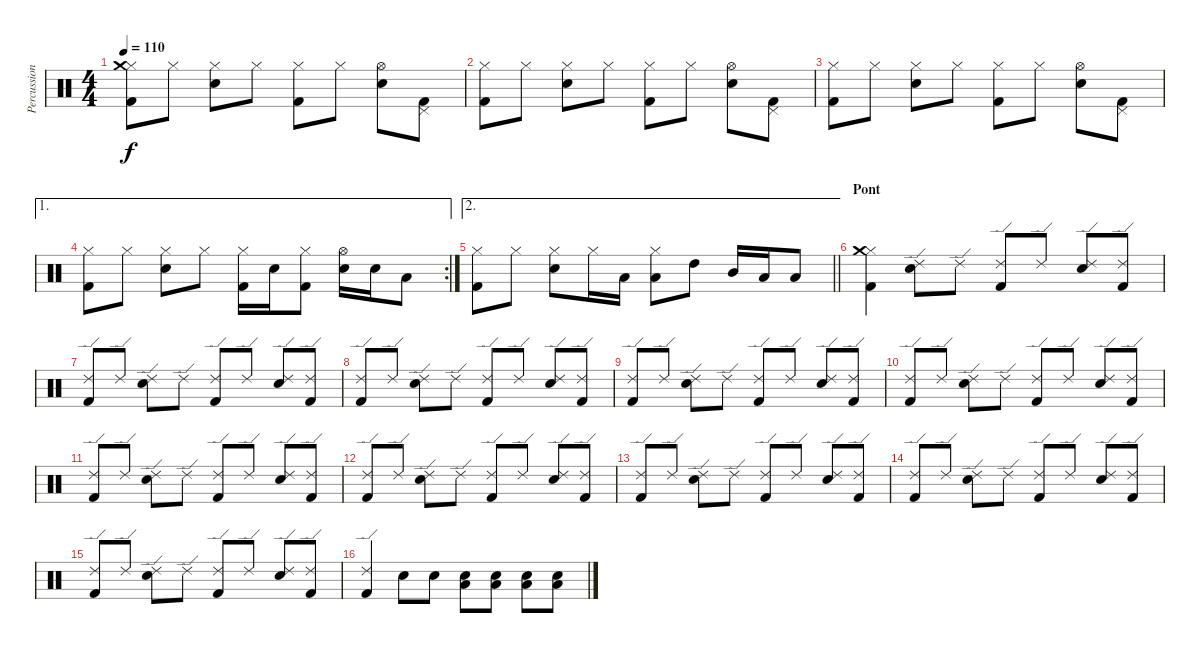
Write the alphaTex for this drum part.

\track ("Percussion" "Percussion") {instrument percussion}
\staff {score}
\articulation defaults
\ts (4 4)
\tempo 110
\clef neutral
\ks c
("Hi-Hat (closed)" "Crash medium (hit)" "Kick (hit) 2").8{dy f} "Hi-Hat (closed)".8 ("Hi-Hat (closed)" "Snare (hit) 2").8 "Hi-Hat (closed)".8 ("Hi-Hat (closed)" "Kick (hit) 2").8 "Hi-Hat (closed)".8 ("Hi-Hat (open)" "Snare (hit) 2").8 ("Pedal Hi-Hat (hit)" "Kick (hit) 2").8 |
("Hi-Hat (closed)" "Kick (hit) 2").8 "Hi-Hat (closed)".8 ("Hi-Hat (closed)" "Snare (hit) 2").8 "Hi-Hat (closed)".8 ("Hi-Hat (closed)" "Kick (hit) 2").8 "Hi-Hat (closed)".8 ("Hi-Hat (open)" "Snare (hit) 2").8 ("Pedal Hi-Hat (hit)" "Kick (hit) 2").8 |
("Hi-Hat (closed)" "Kick (hit) 2").8 "Hi-Hat (closed)".8 ("Hi-Hat (closed)" "Snare (hit) 2").8 "Hi-Hat (closed)".8 ("Hi-Hat (closed)" "Kick (hit) 2").8 "Hi-Hat (closed)".8 ("Hi-Hat (open)" "Snare (hit) 2").8 ("Pedal Hi-Hat (hit)" "Kick (hit) 2").8 |
\ae 1
\rc 2
("Hi-Hat (closed)" "Kick (hit) 2").8 "Hi-Hat (closed)".8 ("Hi-Hat (closed)" "Snare (hit) 2").8 "Hi-Hat (closed)".8 ("Hi-Hat (closed)" "Kick (hit) 2").16 "Snare (hit) 2".16 ("Hi-Hat (closed)" "Kick (hit) 2").8 ("Hi-Hat (open)" "Snare (hit) 2").16 "Snare (hit) 2".16 "Low Floor Tom (hit)".8 |
\ae 2
\barLineRight lightlight
("Hi-Hat (closed)" "Kick (hit) 2").8 "Hi-Hat (closed)".8 ("Hi-Hat (closed)" "Snare (hit) 2").8 "Hi-Hat (closed)".16 "Low Floor Tom (hit)".16 ("Hi-Hat (closed)" "Low Floor Tom (hit)").8 "High Tom (hit)".8 "Mid Tom (hit)".16 "Low Tom (hit)".16 "Low Floor Tom (hit)".8 |
\section ("" "Pont")
("Hi-Hat (closed)" "Crash medium (hit)" "Kick (hit) 2").4 ("Ride (edge) 2" "Snare (hit) 2").8 "Ride (edge) 2".8 ("Ride (edge) 2" "Kick (hit) 2").8 "Ride (edge) 2".8 ("Ride (edge) 2" "Snare (hit) 2").8 ("Ride (edge) 2" "Kick (hit) 2").8 |
("Ride (edge) 2" "Kick (hit) 2").8 "Ride (edge) 2".8 ("Ride (edge) 2" "Snare (hit) 2").8 "Ride (edge) 2".8 ("Ride (edge) 2" "Kick (hit) 2").8 "Ride (edge) 2".8 ("Ride (edge) 2" "Snare (hit) 2").8 ("Ride (edge) 2" "Kick (hit) 2").8 |
("Ride (edge) 2" "Kick (hit) 2").8 "Ride (edge) 2".8 ("Ride (edge) 2" "Snare (hit) 2").8 "Ride (edge) 2".8 ("Ride (edge) 2" "Kick (hit) 2").8 "Ride (edge) 2".8 ("Ride (edge) 2" "Snare (hit) 2").8 ("Ride (edge) 2" "Kick (hit) 2").8 |
("Ride (edge) 2" "Kick (hit) 2").8 "Ride (edge) 2".8 ("Ride (edge) 2" "Snare (hit) 2").8 "Ride (edge) 2".8 ("Ride (edge) 2" "Kick (hit) 2").8 "Ride (edge) 2".8 ("Ride (edge) 2" "Snare (hit) 2").8 ("Ride (edge) 2" "Kick (hit) 2").8 |
("Ride (edge) 2" "Kick (hit) 2").8 "Ride (edge) 2".8 ("Ride (edge) 2" "Snare (hit) 2").8 "Ride (edge) 2".8 ("Ride (edge) 2" "Kick (hit) 2").8 "Ride (edge) 2".8 ("Ride (edge) 2" "Snare (hit) 2").8 ("Ride (edge) 2" "Kick (hit) 2").8 |
("Ride (edge) 2" "Kick (hit) 2").8 "Ride (edge) 2".8 ("Ride (edge) 2" "Snare (hit) 2").8 "Ride (edge) 2".8 ("Ride (edge) 2" "Kick (hit) 2").8 "Ride (edge) 2".8 ("Ride (edge) 2" "Snare (hit) 2").8 ("Ride (edge) 2" "Kick (hit) 2").8 |
("Ride (edge) 2" "Kick (hit) 2").8 "Ride (edge) 2".8 ("Ride (edge) 2" "Snare (hit) 2").8 "Ride (edge) 2".8 ("Ride (edge) 2" "Kick (hit) 2").8 "Ride (edge) 2".8 ("Ride (edge) 2" "Snare (hit) 2").8 ("Ride (edge) 2" "Kick (hit) 2").8 |
("Ride (edge) 2" "Kick (hit) 2").8 "Ride (edge) 2".8 ("Ride (edge) 2" "Snare (hit) 2").8 "Ride (edge) 2".8 ("Ride (edge) 2" "Kick (hit) 2").8 "Ride (edge) 2".8 ("Ride (edge) 2" "Snare (hit) 2").8 ("Ride (edge) 2" "Kick (hit) 2").8 |
("Ride (edge) 2" "Kick (hit) 2").8 "Ride (edge) 2".8 ("Ride (edge) 2" "Snare (hit) 2").8 "Ride (edge) 2".8 ("Ride (edge) 2" "Kick (hit) 2").8 "Ride (edge) 2".8 ("Ride (edge) 2" "Snare (hit) 2").8 ("Ride (edge) 2" "Kick (hit) 2").8 |
("Ride (edge) 2" "Kick (hit) 2").8 "Ride (edge) 2".8 ("Ride (edge) 2" "Snare (hit) 2").8 "Ride (edge) 2".8 ("Ride (edge) 2" "Kick (hit) 2").8 "Ride (edge) 2".8 ("Ride (edge) 2" "Snare (hit) 2").8 ("Ride (edge) 2" "Kick (hit) 2").8 |
("Ride (edge) 2" "Kick (hit) 2").4 "Snare (hit) 2".8 "Snare (hit) 2".8 ("Low Tom (hit)" "Snare (hit) 2").8 ("Low Tom (hit)" "Snare (hit) 2").8 ("Low Tom (hit)" "Snare (hit) 2").8 ("Low Tom (hit)" "Snare (hit) 2").8
